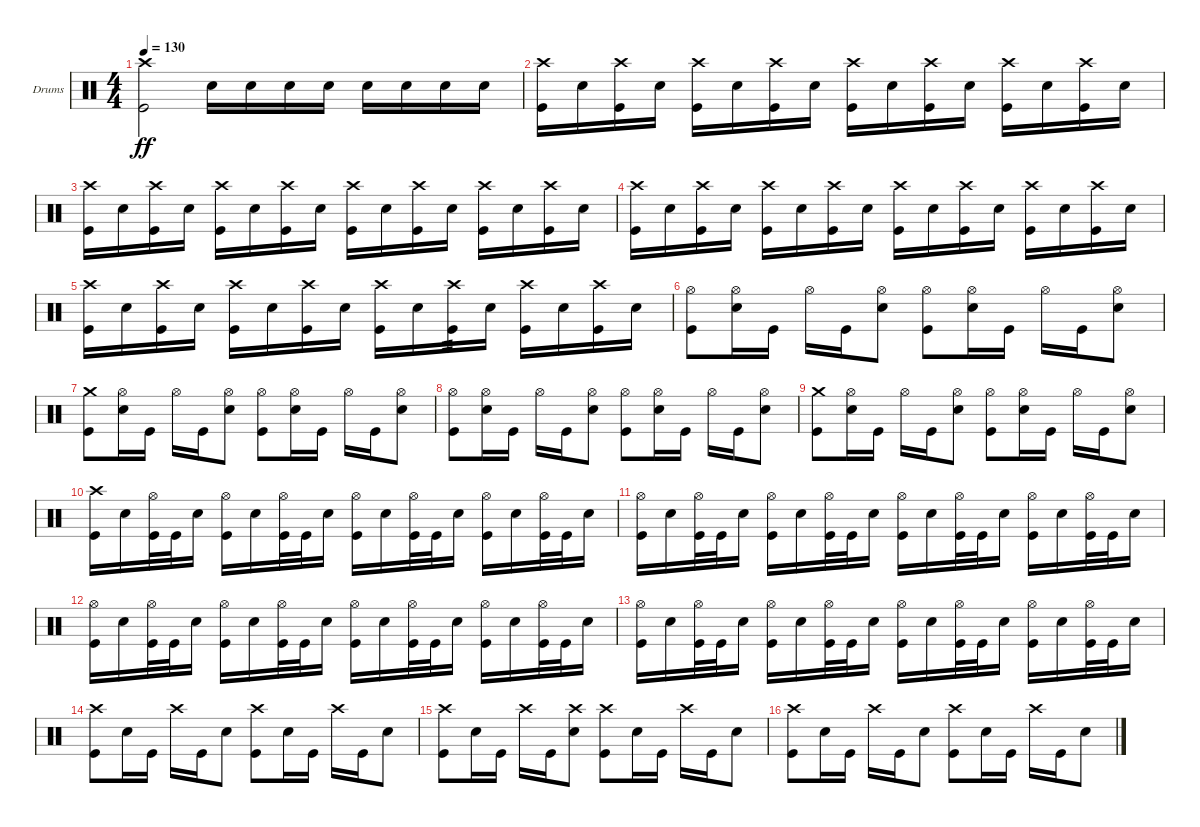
\defaultSystemsLayout 4
\bracketExtendMode groupsimilarinstruments
\firstSystemTrackNameOrientation horizontal
\otherSystemsTrackNameOrientation horizontal
\track ("Drumkit" "Drums") {instrument percussion}
\staff {score}
\articulation defaults
\ts (4 4)
\tempo 130
\clef neutral
\scale
0.474178
\ks c
("Kick (hit)" "Crash high (hit)").2{dy ff} "Snare (hit) 2".16 "Snare (hit) 2".16 "Snare (hit) 2".16 "Snare (hit) 2".16 "Snare (hit) 2".16 "Snare (hit) 2".16 "Snare (hit) 2".16 "Snare (hit) 2".16 |
\scale
0.262911 ("Kick (hit)" "Crash high (hit)").16 "Snare (hit) 2".16 ("Kick (hit)" "Crash high (hit)").16 "Snare (hit) 2".16 ("Kick (hit)" "Crash high (hit)").16 "Snare (hit) 2".16 ("Kick (hit)" "Crash high (hit)").16 "Snare (hit) 2".16 ("Kick (hit)" "Crash high (hit)").16 "Snare (hit) 2".16 ("Kick (hit)" "Crash high (hit)").16 "Snare (hit) 2".16 ("Kick (hit)" "Crash high (hit)").16 "Snare (hit) 2".16 ("Kick (hit)" "Crash high (hit)").16 "Snare (hit) 2".16 |
\scale
0.262911 ("Kick (hit)" "Crash high (hit)").16 "Snare (hit) 2".16 ("Kick (hit)" "Crash high (hit)").16 "Snare (hit) 2".16 ("Kick (hit)" "Crash high (hit)").16 "Snare (hit) 2".16 ("Kick (hit)" "Crash high (hit)").16 "Snare (hit) 2".16 ("Kick (hit)" "Crash high (hit)").16 "Snare (hit) 2".16 ("Kick (hit)" "Crash high (hit)").16 "Snare (hit) 2".16 ("Kick (hit)" "Crash high (hit)").16 "Snare (hit) 2".16 ("Kick (hit)" "Crash high (hit)").16 "Snare (hit) 2".16 |
\scale
0.333333 ("Kick (hit)" "Crash high (hit)").16 "Snare (hit) 2".16 ("Kick (hit)" "Crash high (hit)").16 "Snare (hit) 2".16 ("Kick (hit)" "Crash high (hit)").16 "Snare (hit) 2".16 ("Kick (hit)" "Crash high (hit)").16 "Snare (hit) 2".16 ("Kick (hit)" "Crash high (hit)").16 "Snare (hit) 2".16 ("Kick (hit)" "Crash high (hit)").16 "Snare (hit) 2".16 ("Kick (hit)" "Crash high (hit)").16 "Snare (hit) 2".16 ("Kick (hit)" "Crash high (hit)").16 "Snare (hit) 2".16 |
\scale
0.333333 ("Kick (hit)" "Crash high (hit)").16 "Snare (hit) 2".16 ("Kick (hit)" "Crash high (hit)").16 "Snare (hit) 2".16 ("Kick (hit)" "Crash high (hit)").16 "Snare (hit) 2".16 ("Kick (hit)" "Crash high (hit)").16 "Snare (hit) 2".16 ("Kick (hit)" "Crash high (hit)").16 "Snare (hit) 2".16 ("Kick (hit)" "Crash high (hit)").16{tp 2} "Snare (hit) 2".16 ("Kick (hit)" "Crash high (hit)").16 "Snare (hit) 2".16 ("Kick (hit)" "Crash high (hit)").16 "Snare (hit) 2".16 |
\scale
0.333333 ("Kick (hit)" "Hi-Hat (open)").8 ("Snare (hit) 2" "Hi-Hat (open)").16 "Kick (hit)".16 "Hi-Hat (open)".16 "Kick (hit)".16 ("Snare (hit) 2" "Hi-Hat (open)").8 ("Kick (hit)" "Hi-Hat (open)").8 ("Snare (hit) 2" "Hi-Hat (open)").16 "Kick (hit)".16 "Hi-Hat (open)".16 "Kick (hit)".16 ("Snare (hit) 2" "Hi-Hat (open)").8 |
\scale
0.333333 ("Kick (hit)" "Crash medium (hit)").8 ("Snare (hit) 2" "Hi-Hat (open)").16 "Kick (hit)".16 "Hi-Hat (open)".16 "Kick (hit)".16 ("Snare (hit) 2" "Hi-Hat (open)").8 ("Kick (hit)" "Hi-Hat (open)").8 ("Snare (hit) 2" "Hi-Hat (open)").16 "Kick (hit)".16 "Hi-Hat (open)".16 "Kick (hit)".16 ("Snare (hit) 2" "Hi-Hat (open)").8 |
\scale
0.333333 ("Kick (hit)" "Hi-Hat (open)").8 ("Snare (hit) 2" "Hi-Hat (open)").16 "Kick (hit)".16 "Hi-Hat (open)".16 "Kick (hit)".16 ("Snare (hit) 2" "Hi-Hat (open)").8 ("Kick (hit)" "Hi-Hat (open)").8 ("Snare (hit) 2" "Hi-Hat (open)").16 "Kick (hit)".16 "Hi-Hat (open)".16 "Kick (hit)".16 ("Snare (hit) 2" "Hi-Hat (open)").8 |
\scale
0.333333 ("Kick (hit)" "Crash medium (hit)").8 ("Snare (hit) 2" "Hi-Hat (open)").16 "Kick (hit)".16 "Hi-Hat (open)".16 "Kick (hit)".16 ("Snare (hit) 2" "Hi-Hat (open)").8 ("Kick (hit)" "Hi-Hat (open)").8 ("Snare (hit) 2" "Hi-Hat (open)").16 "Kick (hit)".16 "Hi-Hat (open)".16 "Kick (hit)".16 ("Snare (hit) 2" "Hi-Hat (open)").8 |
\scale
0.333333 ("Kick (hit)" "Crash high (hit)").16 "Snare (hit) 2".16 ("Kick (hit)" "Hi-Hat (open)").32 "Kick (hit)".32 "Snare (hit) 2".16 ("Kick (hit)" "Hi-Hat (open)").16 "Snare (hit) 2".16 ("Kick (hit)" "Hi-Hat (open)").32 "Kick (hit)".32 "Snare (hit) 2".16 ("Kick (hit)" "Hi-Hat (open)").16 "Snare (hit) 2".16 ("Kick (hit)" "Hi-Hat (open)").32 "Kick (hit)".32 "Snare (hit) 2".16 ("Kick (hit)" "Hi-Hat (open)").16 "Snare (hit) 2".16 ("Kick (hit)" "Hi-Hat (open)").32 "Kick (hit)".32 "Snare (hit) 2".16 |
\scale
0.333333 ("Kick (hit)" "Hi-Hat (open)").16 "Snare (hit) 2".16 ("Kick (hit)" "Hi-Hat (open)").32 "Kick (hit)".32 "Snare (hit) 2".16 ("Kick (hit)" "Hi-Hat (open)").16 "Snare (hit) 2".16 ("Kick (hit)" "Hi-Hat (open)").32 "Kick (hit)".32 "Snare (hit) 2".16 ("Kick (hit)" "Hi-Hat (open)").16 "Snare (hit) 2".16 ("Kick (hit)" "Hi-Hat (open)").32 "Kick (hit)".32 "Snare (hit) 2".16 ("Kick (hit)" "Hi-Hat (open)").16 "Snare (hit) 2".16 ("Kick (hit)" "Hi-Hat (open)").32 "Kick (hit)".32 "Snare (hit) 2".16 |
\scale
0.333333 ("Kick (hit)" "Hi-Hat (open)").16 "Snare (hit) 2".16 ("Kick (hit)" "Hi-Hat (open)").32 "Kick (hit)".32 "Snare (hit) 2".16 ("Kick (hit)" "Hi-Hat (open)").16 "Snare (hit) 2".16 ("Kick (hit)" "Hi-Hat (open)").32 "Kick (hit)".32 "Snare (hit) 2".16 ("Kick (hit)" "Hi-Hat (open)").16 "Snare (hit) 2".16 ("Kick (hit)" "Hi-Hat (open)").32 "Kick (hit)".32 "Snare (hit) 2".16 ("Kick (hit)" "Hi-Hat (open)").16 "Snare (hit) 2".16 ("Kick (hit)" "Hi-Hat (open)").32 "Kick (hit)".32 "Snare (hit) 2".16 |
\scale
0.333333 ("Kick (hit)" "Hi-Hat (open)").16 "Snare (hit) 2".16 ("Kick (hit)" "Hi-Hat (open)").32 "Kick (hit)".32 "Snare (hit) 2".16 ("Kick (hit)" "Hi-Hat (open)").16 "Snare (hit) 2".16 ("Kick (hit)" "Hi-Hat (open)").32 "Kick (hit)".32 "Snare (hit) 2".16 ("Kick (hit)" "Hi-Hat (open)").16 "Snare (hit) 2".16 ("Kick (hit)" "Hi-Hat (open)").32 "Kick (hit)".32 "Snare (hit) 2".16 ("Kick (hit)" "Hi-Hat (open)").16 "Snare (hit) 2".16 ("Kick (hit)" "Hi-Hat (open)").32 "Kick (hit)".32 "Snare (hit) 2".16 |
\scale
0.333333 ("Kick (hit)" "Crash high (hit)").8 "Snare (hit) 2".16 "Kick (hit)".16 "Crash high (hit)".16 "Kick (hit)".16 "Snare (hit) 2".8 ("Kick (hit)" "Crash high (hit)").8 "Snare (hit) 2".16 "Kick (hit)".16 "Crash high (hit)".16 "Kick (hit)".16 "Snare (hit) 2".8 |
\scale
0.333333 ("Kick (hit)" "Crash high (hit)").8 "Snare (hit) 2".16 "Kick (hit)".16 "Crash high (hit)".16 "Kick (hit)".16 ("Snare (hit) 2" "Crash high (hit)").8 ("Kick (hit)" "Crash high (hit)").8 "Snare (hit) 2".16 "Kick (hit)".16 "Crash high (hit)".16 "Kick (hit)".16 "Snare (hit) 2".8 |
\scale
0.333333 ("Kick (hit)" "Crash high (hit)").8 "Snare (hit) 2".16 "Kick (hit)".16 "Crash high (hit)".16 "Kick (hit)".16 "Snare (hit) 2".8 ("Kick (hit)" "Crash high (hit)").8 "Snare (hit) 2".16 "Kick (hit)".16 "Crash high (hit)".16 "Kick (hit)".16 "Snare (hit) 2".8
